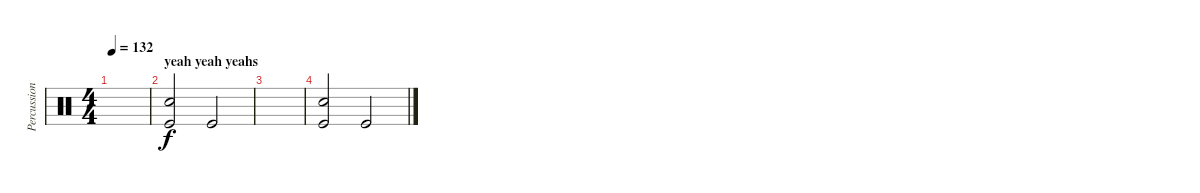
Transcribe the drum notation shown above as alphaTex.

\track ("Percussions" "Percussion") {instrument percussion}
\staff {score}
\articulation defaults
\ts (4 4)
\tempo 132
\clef neutral
\ks c
|
\section ("" "yeah yeah yeahs")
("Snare (hit)"{x} "Kick (hit)").2 "Kick (hit)".2 |
|
("Snare (hit)"{x} "Kick (hit)").2 "Kick (hit)".2
